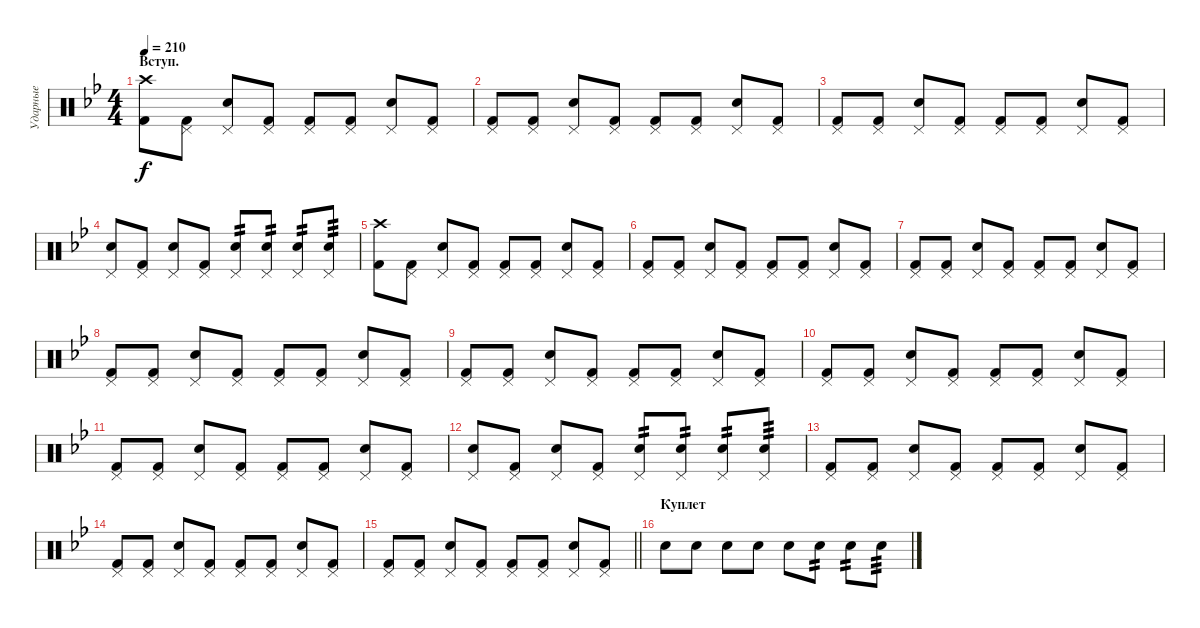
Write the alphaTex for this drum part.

\track ("Ударные" "Ударные") {instrument percussion}
\staff {score}
\articulation defaults
\ts (4 4)
\section ("" "Вступ.")
\tempo 210
\clef neutral
\ks bb
("Crash high (hit)" "Kick (hit) 2").8{dy f} ("Pedal Hi-Hat (hit)" "Kick (hit) 2").8 ("Pedal Hi-Hat (hit)" "Electric Snare (hit)").8 ("Pedal Hi-Hat (hit)" "Kick (hit) 2").8 ("Pedal Hi-Hat (hit)" "Kick (hit) 2").8 ("Pedal Hi-Hat (hit)" "Kick (hit) 2").8 ("Pedal Hi-Hat (hit)" "Electric Snare (hit)").8 ("Pedal Hi-Hat (hit)" "Kick (hit) 2").8 |
("Pedal Hi-Hat (hit)" "Kick (hit) 2").8 ("Pedal Hi-Hat (hit)" "Kick (hit) 2").8 ("Pedal Hi-Hat (hit)" "Electric Snare (hit)").8 ("Pedal Hi-Hat (hit)" "Kick (hit) 2").8 ("Pedal Hi-Hat (hit)" "Kick (hit) 2").8 ("Pedal Hi-Hat (hit)" "Kick (hit) 2").8 ("Pedal Hi-Hat (hit)" "Electric Snare (hit)").8 ("Pedal Hi-Hat (hit)" "Kick (hit) 2").8 |
("Pedal Hi-Hat (hit)" "Kick (hit) 2").8 ("Pedal Hi-Hat (hit)" "Kick (hit) 2").8 ("Pedal Hi-Hat (hit)" "Electric Snare (hit)").8 ("Pedal Hi-Hat (hit)" "Kick (hit) 2").8 ("Pedal Hi-Hat (hit)" "Kick (hit) 2").8 ("Pedal Hi-Hat (hit)" "Kick (hit) 2").8 ("Pedal Hi-Hat (hit)" "Electric Snare (hit)").8 ("Pedal Hi-Hat (hit)" "Kick (hit) 2").8 |
("Pedal Hi-Hat (hit)" "Electric Snare (hit)").8 ("Pedal Hi-Hat (hit)" "Kick (hit) 2").8 ("Pedal Hi-Hat (hit)" "Electric Snare (hit)").8 ("Pedal Hi-Hat (hit)" "Kick (hit) 2").8 ("Pedal Hi-Hat (hit)" "Electric Snare (hit)").8{tp 2} ("Pedal Hi-Hat (hit)" "Electric Snare (hit)").8{tp 2} ("Pedal Hi-Hat (hit)" "Electric Snare (hit)").8{tp 2} ("Pedal Hi-Hat (hit)" "Electric Snare (hit)").8{tp 3} |
("Crash high (hit)" "Kick (hit) 2").8 ("Pedal Hi-Hat (hit)" "Kick (hit) 2").8 ("Pedal Hi-Hat (hit)" "Electric Snare (hit)").8 ("Pedal Hi-Hat (hit)" "Kick (hit) 2").8 ("Pedal Hi-Hat (hit)" "Kick (hit) 2").8 ("Pedal Hi-Hat (hit)" "Kick (hit) 2").8 ("Pedal Hi-Hat (hit)" "Electric Snare (hit)").8 ("Pedal Hi-Hat (hit)" "Kick (hit) 2").8 |
("Pedal Hi-Hat (hit)" "Kick (hit) 2").8 ("Pedal Hi-Hat (hit)" "Kick (hit) 2").8 ("Pedal Hi-Hat (hit)" "Electric Snare (hit)").8 ("Pedal Hi-Hat (hit)" "Kick (hit) 2").8 ("Pedal Hi-Hat (hit)" "Kick (hit) 2").8 ("Pedal Hi-Hat (hit)" "Kick (hit) 2").8 ("Pedal Hi-Hat (hit)" "Electric Snare (hit)").8 ("Pedal Hi-Hat (hit)" "Kick (hit) 2").8 |
("Pedal Hi-Hat (hit)" "Kick (hit) 2").8 ("Pedal Hi-Hat (hit)" "Kick (hit) 2").8 ("Pedal Hi-Hat (hit)" "Electric Snare (hit)").8 ("Pedal Hi-Hat (hit)" "Kick (hit) 2").8 ("Pedal Hi-Hat (hit)" "Kick (hit) 2").8 ("Pedal Hi-Hat (hit)" "Kick (hit) 2").8 ("Pedal Hi-Hat (hit)" "Electric Snare (hit)").8 ("Pedal Hi-Hat (hit)" "Kick (hit) 2").8 |
("Pedal Hi-Hat (hit)" "Kick (hit) 2").8 ("Pedal Hi-Hat (hit)" "Kick (hit) 2").8 ("Pedal Hi-Hat (hit)" "Electric Snare (hit)").8 ("Pedal Hi-Hat (hit)" "Kick (hit) 2").8 ("Pedal Hi-Hat (hit)" "Kick (hit) 2").8 ("Pedal Hi-Hat (hit)" "Kick (hit) 2").8 ("Pedal Hi-Hat (hit)" "Electric Snare (hit)").8 ("Pedal Hi-Hat (hit)" "Kick (hit) 2").8 |
("Pedal Hi-Hat (hit)" "Kick (hit) 2").8 ("Pedal Hi-Hat (hit)" "Kick (hit) 2").8 ("Pedal Hi-Hat (hit)" "Electric Snare (hit)").8 ("Pedal Hi-Hat (hit)" "Kick (hit) 2").8 ("Pedal Hi-Hat (hit)" "Kick (hit) 2").8 ("Pedal Hi-Hat (hit)" "Kick (hit) 2").8 ("Pedal Hi-Hat (hit)" "Electric Snare (hit)").8 ("Pedal Hi-Hat (hit)" "Kick (hit) 2").8 |
("Pedal Hi-Hat (hit)" "Kick (hit) 2").8 ("Pedal Hi-Hat (hit)" "Kick (hit) 2").8 ("Pedal Hi-Hat (hit)" "Electric Snare (hit)").8 ("Pedal Hi-Hat (hit)" "Kick (hit) 2").8 ("Pedal Hi-Hat (hit)" "Kick (hit) 2").8 ("Pedal Hi-Hat (hit)" "Kick (hit) 2").8 ("Pedal Hi-Hat (hit)" "Electric Snare (hit)").8 ("Pedal Hi-Hat (hit)" "Kick (hit) 2").8 |
("Pedal Hi-Hat (hit)" "Kick (hit) 2").8 ("Pedal Hi-Hat (hit)" "Kick (hit) 2").8 ("Pedal Hi-Hat (hit)" "Electric Snare (hit)").8 ("Pedal Hi-Hat (hit)" "Kick (hit) 2").8 ("Pedal Hi-Hat (hit)" "Kick (hit) 2").8 ("Pedal Hi-Hat (hit)" "Kick (hit) 2").8 ("Pedal Hi-Hat (hit)" "Electric Snare (hit)").8 ("Pedal Hi-Hat (hit)" "Kick (hit) 2").8 |
("Pedal Hi-Hat (hit)" "Electric Snare (hit)").8 ("Pedal Hi-Hat (hit)" "Kick (hit) 2").8 ("Pedal Hi-Hat (hit)" "Electric Snare (hit)").8 ("Pedal Hi-Hat (hit)" "Kick (hit) 2").8 ("Pedal Hi-Hat (hit)" "Electric Snare (hit)").8{tp 2} ("Pedal Hi-Hat (hit)" "Electric Snare (hit)").8{tp 2} ("Pedal Hi-Hat (hit)" "Electric Snare (hit)").8{tp 2} ("Pedal Hi-Hat (hit)" "Electric Snare (hit)").8{tp 3} |
("Pedal Hi-Hat (hit)" "Kick (hit) 2").8 ("Pedal Hi-Hat (hit)" "Kick (hit) 2").8 ("Pedal Hi-Hat (hit)" "Electric Snare (hit)").8 ("Pedal Hi-Hat (hit)" "Kick (hit) 2").8 ("Pedal Hi-Hat (hit)" "Kick (hit) 2").8 ("Pedal Hi-Hat (hit)" "Kick (hit) 2").8 ("Pedal Hi-Hat (hit)" "Electric Snare (hit)").8 ("Pedal Hi-Hat (hit)" "Kick (hit) 2").8 |
("Pedal Hi-Hat (hit)" "Kick (hit) 2").8 ("Pedal Hi-Hat (hit)" "Kick (hit) 2").8 ("Pedal Hi-Hat (hit)" "Electric Snare (hit)").8 ("Pedal Hi-Hat (hit)" "Kick (hit) 2").8 ("Pedal Hi-Hat (hit)" "Kick (hit) 2").8 ("Pedal Hi-Hat (hit)" "Kick (hit) 2").8 ("Pedal Hi-Hat (hit)" "Electric Snare (hit)").8 ("Pedal Hi-Hat (hit)" "Kick (hit) 2").8 |
\barLineRight lightlight
("Pedal Hi-Hat (hit)" "Kick (hit) 2").8 ("Pedal Hi-Hat (hit)" "Kick (hit) 2").8 ("Pedal Hi-Hat (hit)" "Electric Snare (hit)").8 ("Pedal Hi-Hat (hit)" "Kick (hit) 2").8 ("Pedal Hi-Hat (hit)" "Kick (hit) 2").8 ("Pedal Hi-Hat (hit)" "Kick (hit) 2").8 ("Pedal Hi-Hat (hit)" "Electric Snare (hit)").8 ("Pedal Hi-Hat (hit)" "Kick (hit) 2").8 |
\section ("" "Куплет")
"Electric Snare (hit)".8 "Electric Snare (hit)".8 "Electric Snare (hit)".8 "Electric Snare (hit)".8 "Electric Snare (hit)".8 "Electric Snare (hit)".8{tp 2} "Electric Snare (hit)".8{tp 2} "Electric Snare (hit)".8{tp 3}
